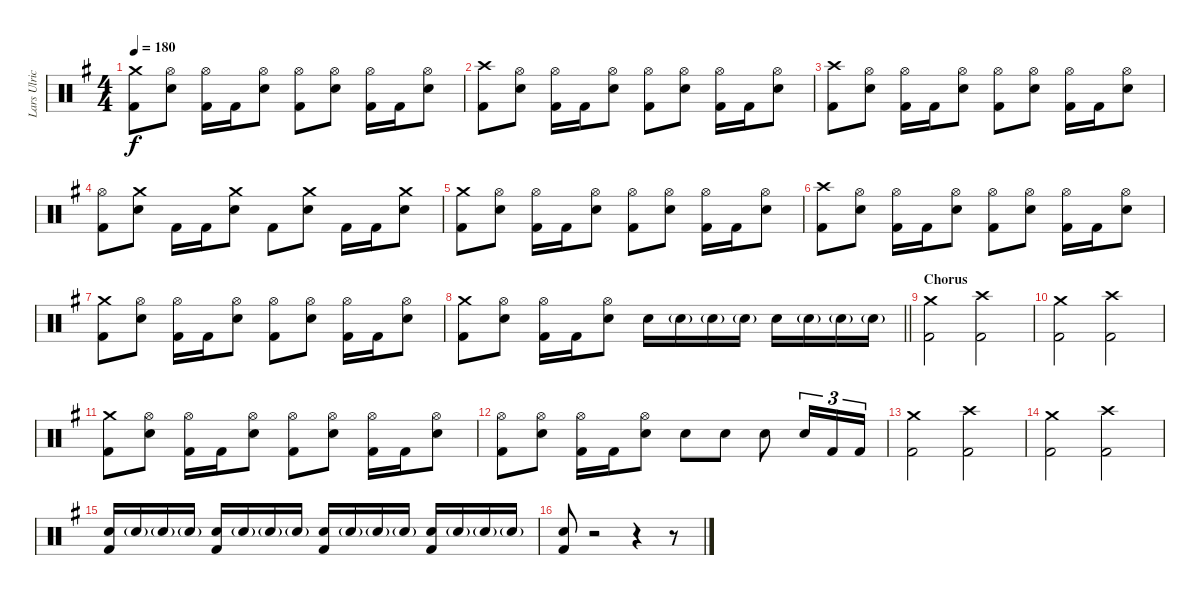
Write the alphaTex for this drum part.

\track ("Lars Ulrich" "Lars Ulric") {instrument percussion}
\staff {score}
\articulation defaults
\ts (4 4)
\tempo 180
\clef neutral
\ks eminor
("Crash medium (hit)" "Kick (hit) 2").8{dy f} ("Hi-Hat (open)" "Snare (hit) 2").8 ("Hi-Hat (open)" "Kick (hit) 2").16 "Kick (hit) 2".16 ("Hi-Hat (open)" "Snare (hit) 2").8 ("Hi-Hat (open)" "Kick (hit) 2").8 ("Hi-Hat (open)" "Snare (hit) 2").8 ("Hi-Hat (open)" "Kick (hit) 2").16 "Kick (hit) 2".16 ("Hi-Hat (open)" "Snare (hit) 2").8 |
("Crash high (hit)" "Kick (hit) 2").8 ("Hi-Hat (open)" "Snare (hit) 2").8 ("Hi-Hat (open)" "Kick (hit) 2").16 "Kick (hit) 2".16 ("Hi-Hat (open)" "Snare (hit) 2").8 ("Hi-Hat (open)" "Kick (hit) 2").8 ("Hi-Hat (open)" "Snare (hit) 2").8 ("Hi-Hat (open)" "Kick (hit) 2").16 "Kick (hit) 2".16 ("Hi-Hat (open)" "Snare (hit) 2").8 |
("Crash high (hit)" "Kick (hit) 2").8 ("Hi-Hat (open)" "Snare (hit) 2").8 ("Hi-Hat (open)" "Kick (hit) 2").16 "Kick (hit) 2".16 ("Hi-Hat (open)" "Snare (hit) 2").8 ("Hi-Hat (open)" "Kick (hit) 2").8 ("Hi-Hat (open)" "Snare (hit) 2").8 ("Hi-Hat (open)" "Kick (hit) 2").16 "Kick (hit) 2".16 ("Hi-Hat (open)" "Snare (hit) 2").8 |
("Hi-Hat (open)" "Kick (hit) 2").8 ("Crash medium (hit)" "Snare (hit) 2").8 "Kick (hit) 2".16 "Kick (hit) 2".16 ("Crash medium (hit)" "Snare (hit) 2").8 "Kick (hit) 2".8 ("Crash medium (hit)" "Snare (hit) 2").8 "Kick (hit) 2".16 "Kick (hit) 2".16 ("Crash medium (hit)" "Snare (hit) 2").8 |
("Crash medium (hit)" "Kick (hit) 2").8 ("Hi-Hat (open)" "Snare (hit) 2").8 ("Hi-Hat (open)" "Kick (hit) 2").16 "Kick (hit) 2".16 ("Hi-Hat (open)" "Snare (hit) 2").8 ("Hi-Hat (open)" "Kick (hit) 2").8 ("Hi-Hat (open)" "Snare (hit) 2").8 ("Hi-Hat (open)" "Kick (hit) 2").16 "Kick (hit) 2".16 ("Hi-Hat (open)" "Snare (hit) 2").8 |
("Crash high (hit)" "Kick (hit) 2").8 ("Hi-Hat (open)" "Snare (hit) 2").8 ("Hi-Hat (open)" "Kick (hit) 2").16 "Kick (hit) 2".16 ("Hi-Hat (open)" "Snare (hit) 2").8 ("Hi-Hat (open)" "Kick (hit) 2").8 ("Hi-Hat (open)" "Snare (hit) 2").8 ("Hi-Hat (open)" "Kick (hit) 2").16 "Kick (hit) 2".16 ("Hi-Hat (open)" "Snare (hit) 2").8 |
("Crash medium (hit)" "Kick (hit) 2").8 ("Hi-Hat (open)" "Snare (hit) 2").8 ("Hi-Hat (open)" "Kick (hit) 2").16 "Kick (hit) 2".16 ("Hi-Hat (open)" "Snare (hit) 2").8 ("Hi-Hat (open)" "Kick (hit) 2").8 ("Hi-Hat (open)" "Snare (hit) 2").8 ("Hi-Hat (open)" "Kick (hit) 2").16 "Kick (hit) 2".16 ("Hi-Hat (open)" "Snare (hit) 2").8 |
\barLineRight lightlight
("Crash medium (hit)" "Kick (hit) 2").8 ("Hi-Hat (open)" "Snare (hit) 2").8 ("Hi-Hat (open)" "Kick (hit) 2").16 "Kick (hit) 2".16 ("Hi-Hat (open)" "Snare (hit) 2").8 "Snare (hit) 2".16 "Snare (hit) 2"{g}.16 "Snare (hit) 2"{g}.16 "Snare (hit) 2"{g}.16 "Snare (hit) 2".16 "Snare (hit) 2"{g}.16 "Snare (hit) 2"{g}.16 "Snare (hit) 2"{g}.16 |
\section ("" "Chorus")
("Crash medium (hit)" "Kick (hit) 2").2 ("Crash high (hit)" "Kick (hit) 2").2 |
("Crash medium (hit)" "Kick (hit) 2").2 ("Crash high (hit)" "Kick (hit) 2").2 |
("Crash medium (hit)" "Kick (hit) 2").8 ("Hi-Hat (open)" "Snare (hit) 2").8 ("Hi-Hat (open)" "Kick (hit) 2").16 "Kick (hit) 2".16 ("Hi-Hat (open)" "Snare (hit) 2").8 ("Hi-Hat (open)" "Kick (hit) 2").8 ("Hi-Hat (open)" "Snare (hit) 2").8 ("Hi-Hat (open)" "Kick (hit) 2").16 "Kick (hit) 2".16 ("Hi-Hat (open)" "Snare (hit) 2").8 |
("Hi-Hat (open)" "Kick (hit) 2").8 ("Hi-Hat (open)" "Snare (hit) 2").8 ("Hi-Hat (open)" "Kick (hit) 2").16 "Kick (hit) 2".16 ("Hi-Hat (open)" "Snare (hit) 2").8 "Snare (hit) 2".8 "Snare (hit) 2".8 "Snare (hit) 2".8 "Snare (hit) 2".16{tu (3 2)} "Kick (hit) 2".16{tu (3 2)} "Kick (hit) 2".16{tu (3 2)} |
("Crash medium (hit)" "Kick (hit) 2").2 ("Crash high (hit)" "Kick (hit) 2").2 |
("Crash medium (hit)" "Kick (hit) 2").2 ("Crash high (hit)" "Kick (hit) 2").2 |
("Snare (hit) 2" "Kick (hit) 2").16 "Snare (hit) 2"{g}.16 "Snare (hit) 2"{g}.16 "Snare (hit) 2"{g}.16 ("Snare (hit) 2" "Kick (hit) 2").16 "Snare (hit) 2"{g}.16 "Snare (hit) 2"{g}.16 "Snare (hit) 2"{g}.16 ("Snare (hit) 2" "Kick (hit) 2").16 "Snare (hit) 2"{g}.16 "Snare (hit) 2"{g}.16 "Snare (hit) 2"{g}.16 ("Snare (hit) 2" "Kick (hit) 2").16 "Snare (hit) 2"{g}.16 "Snare (hit) 2"{g}.16 "Snare (hit) 2"{g}.16 |
("Snare (hit) 2" "Kick (hit) 2").8 r.2 r.4 r.8
